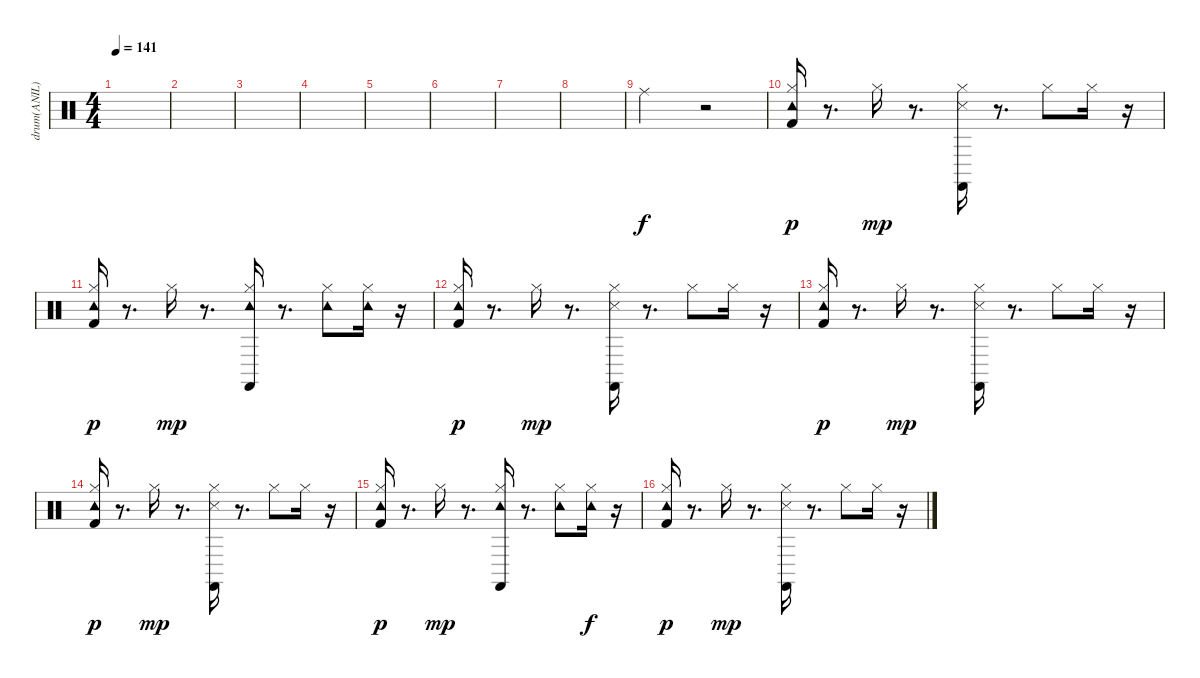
\track ("drum(ANIL)" "drum(ANIL)") {instrument percussion}
\staff {score}
\articulation defaults
\ts (4 4)
\tempo 141
\clef neutral
\ks c
|
|
|
|
|
|
|
|
"Ride (middle)".2 r.2 |
("Kick (hit) 2" "Hi-Hat (closed)" "Tambourine (hit)").16{dy p} r.8{d} "Hi-Hat (closed)".16{dy mp} r.8{d} ("Castanets (hit)" "Snare (side stick) 3" "Hi-Hat (closed)").16 r.8{d} "Hi-Hat (closed)".8 "Hi-Hat (closed)".16 r.16 |
("Kick (hit) 2" "Hi-Hat (closed)" "Tambourine (hit)").16{dy p} r.8{d} "Hi-Hat (closed)".16{dy mp} r.8{d} ("Castanets (hit)" "Tambourine (hit)" "Hi-Hat (closed)").16 r.8{d} ("Hi-Hat (closed)" "Tambourine (hit)").8 ("Hi-Hat (closed)" "Tambourine (hit)").16 r.16 |
("Kick (hit) 2" "Hi-Hat (closed)" "Tambourine (hit)").16{dy p} r.8{d} "Hi-Hat (closed)".16{dy mp} r.8{d} ("Castanets (hit)" "Snare (side stick) 3" "Hi-Hat (closed)").16 r.8{d} "Hi-Hat (closed)".8 "Hi-Hat (closed)".16 r.16 |
("Kick (hit) 2" "Hi-Hat (closed)" "Tambourine (hit)").16{dy p} r.8{d} "Hi-Hat (closed)".16{dy mp} r.8{d} ("Castanets (hit)" "Snare (side stick) 3" "Hi-Hat (closed)").16 r.8{d} "Hi-Hat (closed)".8 "Hi-Hat (closed)".16 r.16 |
("Kick (hit) 2" "Hi-Hat (closed)" "Tambourine (hit)").16{dy p} r.8{d} "Hi-Hat (closed)".16{dy mp} r.8{d} ("Castanets (hit)" "Snare (side stick) 3" "Hi-Hat (closed)").16 r.8{d} "Hi-Hat (closed)".8 "Hi-Hat (closed)".16 r.16 |
("Kick (hit) 2" "Hi-Hat (closed)" "Tambourine (hit)").16{dy p} r.8{d} "Hi-Hat (closed)".16{dy mp} r.8{d} ("Castanets (hit)" "Tambourine (hit)" "Hi-Hat (closed)").16 r.8{d} ("Hi-Hat (closed)" "Tambourine (hit)").8 ("Hi-Hat (closed)" "Tambourine (hit)").16{dy f} r.16 |
("Kick (hit) 2" "Hi-Hat (closed)" "Tambourine (hit)").16{dy p} r.8{d} "Hi-Hat (closed)".16{dy mp} r.8{d} ("Castanets (hit)" "Snare (side stick) 3" "Hi-Hat (closed)").16 r.8{d} "Hi-Hat (closed)".8 "Hi-Hat (closed)".16 r.16
